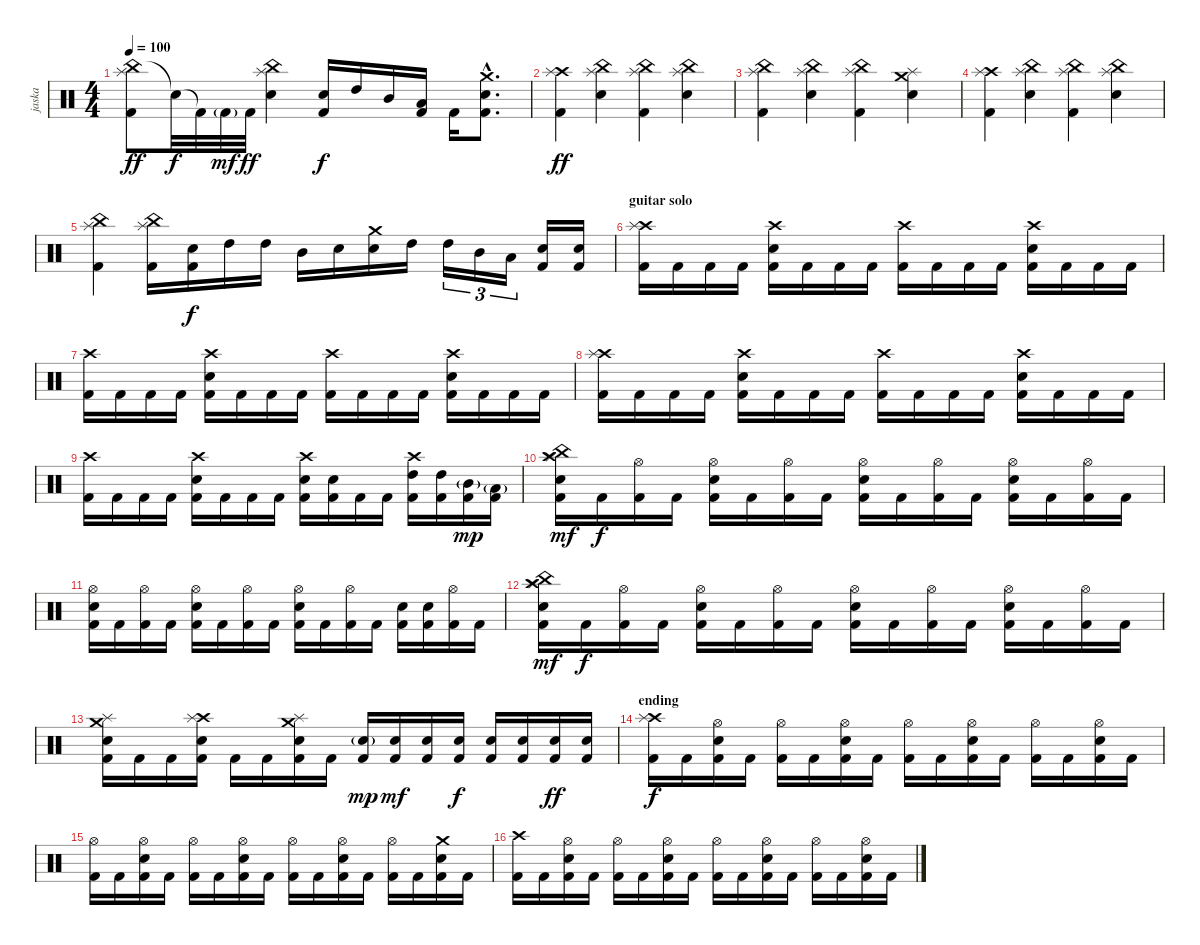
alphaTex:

\track ("jaska" "jaska") {instrument percussion}
\staff {score}
\articulation defaults
\ts (4 4)
\tempo 100
\clef neutral
\ks c
("China (hit)" "Splash (hit)" "Kick (hit) 2").8{dy ff} "Snare (hit)"{t}.32{dy f} "Kick (hit) 2"{t}.32 "Kick (hit) 2"{g}.32{dy mf} "Kick (hit) 2".32{dy ff} ("China (hit)" "Splash (hit)" "Electric Snare (hit)").4 ("Electric Snare (hit)" "Kick (hit) 2").16{dy f} "High Tom (hit)".16 "Mid Tom (hit)".16 ("Low Tom (hit)" "Kick (hit) 2").16 "Kick (hit) 2".16 ("Crash medium (hit)"{hac} "Electric Snare (hit)"{hac} "Kick (hit) 2"{hac}).8{d} |
("Crash high (hit)" "Splash (hit)" "Kick (hit) 2").4{dy ff} ("China (hit)" "Splash (hit)" "Electric Snare (hit)").4 ("China (hit)" "Splash (hit)" "Kick (hit) 2").4 ("China (hit)" "Splash (hit)" "Electric Snare (hit)").4 |
("China (hit)" "Splash (hit)" "Kick (hit) 2").4 ("China (hit)" "Splash (hit)" "Electric Snare (hit)").4 ("China (hit)" "Splash (hit)" "Kick (hit) 2").4 ("Crash medium (hit)" "Splash (hit)" "Electric Snare (hit)").4 |
("Crash high (hit)" "Splash (hit)" "Kick (hit) 2").4 ("China (hit)" "Splash (hit)" "Electric Snare (hit)").4 ("China (hit)" "Splash (hit)" "Kick (hit) 2").4 ("China (hit)" "Splash (hit)" "Electric Snare (hit)").4 |
("China (hit)" "Splash (hit)" "Kick (hit) 2").4 ("China (hit)" "Splash (hit)" "Kick (hit) 2").16 ("Electric Snare (hit)" "Kick (hit) 2").16{dy f} "High Tom (hit)".16 "High Tom (hit)".16 "Mid Tom (hit)".16 "Electric Snare (hit)".16 ("Crash medium (hit)" "Electric Snare (hit)").16 "High Tom (hit)".16 "High Tom (hit)".16{tu (3 2)} "Mid Tom (hit)".16{tu (3 2)} "Low Tom (hit)".16{tu (3 2)} ("Electric Snare (hit)" "Kick (hit) 2").16 ("Electric Snare (hit)" "Kick (hit) 2").16 |
\section ("" "guitar solo")
("Crash high (hit)" "Splash (hit)" "Kick (hit) 2").16 "Kick (hit) 2".16 "Kick (hit) 2".16 "Kick (hit) 2".16 ("Crash high (hit)" "Electric Snare (hit)" "Kick (hit) 2").16 "Kick (hit) 2".16 "Kick (hit) 2".16 "Kick (hit) 2".16 ("Crash high (hit)" "Kick (hit) 2").16 "Kick (hit) 2".16 "Kick (hit) 2".16 "Kick (hit) 2".16 ("Crash high (hit)" "Electric Snare (hit)" "Kick (hit) 2").16 "Kick (hit) 2".16 "Kick (hit) 2".16 "Kick (hit) 2".16 |
("Crash high (hit)" "Kick (hit) 2").16 "Kick (hit) 2".16 "Kick (hit) 2".16 "Kick (hit) 2".16 ("Crash high (hit)" "Electric Snare (hit)" "Kick (hit) 2").16 "Kick (hit) 2".16 "Kick (hit) 2".16 "Kick (hit) 2".16 ("Crash high (hit)" "Kick (hit) 2").16 "Kick (hit) 2".16 "Kick (hit) 2".16 "Kick (hit) 2".16 ("Crash high (hit)" "Electric Snare (hit)" "Kick (hit) 2").16 "Kick (hit) 2".16 "Kick (hit) 2".16 "Kick (hit) 2".16 |
("Crash high (hit)" "Splash (hit)" "Kick (hit) 2").16 "Kick (hit) 2".16 "Kick (hit) 2".16 "Kick (hit) 2".16 ("Crash high (hit)" "Electric Snare (hit)" "Kick (hit) 2").16 "Kick (hit) 2".16 "Kick (hit) 2".16 "Kick (hit) 2".16 ("Crash high (hit)" "Kick (hit) 2").16 "Kick (hit) 2".16 "Kick (hit) 2".16 "Kick (hit) 2".16 ("Crash high (hit)" "Electric Snare (hit)" "Kick (hit) 2").16 "Kick (hit) 2".16 "Kick (hit) 2".16 "Kick (hit) 2".16 |
("Crash high (hit)" "Kick (hit) 2").16 "Kick (hit) 2".16 "Kick (hit) 2".16 "Kick (hit) 2".16 ("Crash high (hit)" "Electric Snare (hit)" "Kick (hit) 2").16 "Kick (hit) 2".16 "Kick (hit) 2".16 "Kick (hit) 2".16 ("Crash high (hit)" "Electric Snare (hit)" "Kick (hit) 2").16 ("Electric Snare (hit)" "Kick (hit) 2").16 "Kick (hit) 2".16 "Kick (hit) 2".16 ("Crash high (hit)" "High Tom (hit)" "Kick (hit) 2").16 ("High Tom (hit)" "Kick (hit) 2").16 ("Mid Tom (hit)"{g} "Kick (hit) 2").16{dy mp} ("Low Tom (hit)"{g} "Kick (hit) 2").16 |
("Crash high (hit)" "China (hit)" "Splash (hit)" "Electric Snare (hit)" "Kick (hit) 2").16{dy mf} "Kick (hit) 2".16{dy f} ("Hi-Hat (open)" "Kick (hit) 2").16 "Kick (hit) 2".16 ("Hi-Hat (open)" "Electric Snare (hit)" "Kick (hit) 2").16 "Kick (hit) 2".16 ("Hi-Hat (open)" "Kick (hit) 2").16 "Kick (hit) 2".16 ("Hi-Hat (open)" "Electric Snare (hit)" "Kick (hit) 2").16 "Kick (hit) 2".16 ("Hi-Hat (open)" "Kick (hit) 2").16 "Kick (hit) 2".16 ("Hi-Hat (open)" "Electric Snare (hit)" "Kick (hit) 2").16 "Kick (hit) 2".16 ("Hi-Hat (open)" "Kick (hit) 2").16 "Kick (hit) 2".16 |
("Hi-Hat (open)" "Electric Snare (hit)" "Kick (hit) 2").16 "Kick (hit) 2".16 ("Hi-Hat (open)" "Kick (hit) 2").16 "Kick (hit) 2".16 ("Hi-Hat (open)" "Electric Snare (hit)" "Kick (hit) 2").16 "Kick (hit) 2".16 ("Hi-Hat (open)" "Kick (hit) 2").16 "Kick (hit) 2".16 ("Hi-Hat (open)" "Electric Snare (hit)" "Kick (hit) 2").16 "Kick (hit) 2".16 ("Hi-Hat (open)" "Kick (hit) 2").16 "Kick (hit) 2".16 ("Electric Snare (hit)" "Kick (hit) 2").16 ("Electric Snare (hit)" "Kick (hit) 2").16 ("Hi-Hat (open)" "Kick (hit) 2").16 "Kick (hit) 2".16 |
("Crash high (hit)" "China (hit)" "Splash (hit)" "Electric Snare (hit)" "Kick (hit) 2").16{dy mf} "Kick (hit) 2".16{dy f} ("Hi-Hat (open)" "Kick (hit) 2").16 "Kick (hit) 2".16 ("Hi-Hat (open)" "Electric Snare (hit)" "Kick (hit) 2").16 "Kick (hit) 2".16 ("Hi-Hat (open)" "Kick (hit) 2").16 "Kick (hit) 2".16 ("Hi-Hat (open)" "Electric Snare (hit)" "Kick (hit) 2").16 "Kick (hit) 2".16 ("Hi-Hat (open)" "Kick (hit) 2").16 "Kick (hit) 2".16 ("Hi-Hat (open)" "Electric Snare (hit)" "Kick (hit) 2").16 "Kick (hit) 2".16 ("Hi-Hat (open)" "Kick (hit) 2").16 "Kick (hit) 2".16 |
("Crash medium (hit)" "Splash (hit)" "Electric Snare (hit)" "Kick (hit) 2").16 "Kick (hit) 2".16 "Kick (hit) 2".16 ("Crash high (hit)" "Splash (hit)" "Electric Snare (hit)" "Kick (hit) 2").16 "Kick (hit) 2".16 "Kick (hit) 2".16 ("Crash medium (hit)" "Splash (hit)" "Electric Snare (hit)" "Kick (hit) 2").16 "Kick (hit) 2".16 ("Electric Snare (hit)"{g} "Kick (hit) 2").16{dy mp} ("Electric Snare (hit)" "Kick (hit) 2").16{dy mf} ("Electric Snare (hit)" "Kick (hit) 2").16 ("Electric Snare (hit)" "Kick (hit) 2").16{dy f} ("Electric Snare (hit)" "Kick (hit) 2").16 ("Electric Snare (hit)" "Kick (hit) 2").16 ("Electric Snare (hit)" "Kick (hit) 2").16{dy ff} ("Electric Snare (hit)" "Kick (hit) 2").16 |
\section ("" "ending")
("Crash high (hit)" "Splash (hit)" "Kick (hit) 2").16{dy f} "Kick (hit) 2".16 ("Hi-Hat (open)" "Electric Snare (hit)" "Kick (hit) 2").16 "Kick (hit) 2".16 ("Hi-Hat (open)" "Kick (hit) 2").16 "Kick (hit) 2".16 ("Hi-Hat (open)" "Electric Snare (hit)" "Kick (hit) 2").16 "Kick (hit) 2".16 ("Hi-Hat (open)" "Kick (hit) 2").16 "Kick (hit) 2".16 ("Hi-Hat (open)" "Electric Snare (hit)" "Kick (hit) 2").16 "Kick (hit) 2".16 ("Hi-Hat (open)" "Kick (hit) 2").16 "Kick (hit) 2".16 ("Hi-Hat (open)" "Electric Snare (hit)" "Kick (hit) 2").16 "Kick (hit) 2".16 |
("Hi-Hat (open)" "Kick (hit) 2").16 "Kick (hit) 2".16 ("Hi-Hat (open)" "Electric Snare (hit)" "Kick (hit) 2").16 "Kick (hit) 2".16 ("Hi-Hat (open)" "Kick (hit) 2").16 "Kick (hit) 2".16 ("Hi-Hat (open)" "Electric Snare (hit)" "Kick (hit) 2").16 "Kick (hit) 2".16 ("Hi-Hat (open)" "Kick (hit) 2").16 "Kick (hit) 2".16 ("Hi-Hat (open)" "Electric Snare (hit)" "Kick (hit) 2").16 "Kick (hit) 2".16 ("Hi-Hat (open)" "Kick (hit) 2").16 "Kick (hit) 2".16 ("Crash medium (hit)" "Electric Snare (hit)" "Kick (hit) 2").16 "Kick (hit) 2".16 |
("Crash high (hit)" "Kick (hit) 2").16 "Kick (hit) 2".16 ("Hi-Hat (open)" "Electric Snare (hit)" "Kick (hit) 2").16 "Kick (hit) 2".16 ("Hi-Hat (open)" "Kick (hit) 2").16 "Kick (hit) 2".16 ("Hi-Hat (open)" "Electric Snare (hit)" "Kick (hit) 2").16 "Kick (hit) 2".16 ("Hi-Hat (open)" "Kick (hit) 2").16 "Kick (hit) 2".16 ("Hi-Hat (open)" "Electric Snare (hit)" "Kick (hit) 2").16 "Kick (hit) 2".16 ("Hi-Hat (open)" "Kick (hit) 2").16 "Kick (hit) 2".16 ("Hi-Hat (open)" "Electric Snare (hit)" "Kick (hit) 2").16 "Kick (hit) 2".16
